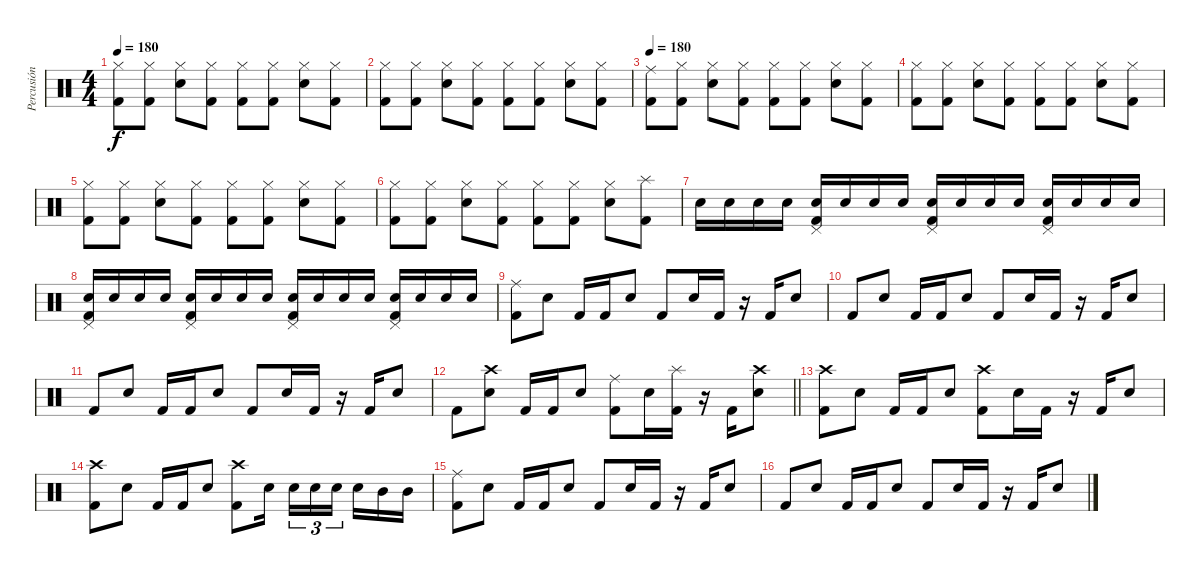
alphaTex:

\track ("Percusión" "Percusión") {instrument percussion}
\staff {score}
\articulation defaults
\ts (4 4)
\tempo 180
\clef neutral
\ks c
("Kick (hit) 2" "Hi-Hat (closed)").8{dy f} ("Kick (hit) 2" "Hi-Hat (closed)").8 ("Snare (hit) 2" "Hi-Hat (closed)").8 ("Kick (hit) 2" "Hi-Hat (closed)").8 ("Kick (hit) 2" "Hi-Hat (closed)").8 ("Kick (hit) 2" "Hi-Hat (closed)").8 ("Snare (hit) 2" "Hi-Hat (closed)").8 ("Kick (hit) 2" "Hi-Hat (closed)").8 |
("Kick (hit) 2" "Hi-Hat (closed)").8 ("Kick (hit) 2" "Hi-Hat (closed)").8 ("Snare (hit) 2" "Hi-Hat (closed)").8 ("Kick (hit) 2" "Hi-Hat (closed)").8 ("Kick (hit) 2" "Hi-Hat (closed)").8 ("Kick (hit) 2" "Hi-Hat (closed)").8 ("Snare (hit) 2" "Hi-Hat (closed)").8 ("Kick (hit) 2" "Hi-Hat (closed)").8 |
\tempo 180
("Kick (hit) 2" "Ride (middle)").8 ("Kick (hit) 2" "Hi-Hat (closed)").8 ("Snare (hit) 2" "Hi-Hat (closed)").8 ("Kick (hit) 2" "Hi-Hat (closed)").8 ("Kick (hit) 2" "Hi-Hat (closed)").8 ("Kick (hit) 2" "Hi-Hat (closed)").8 ("Snare (hit) 2" "Hi-Hat (closed)").8 ("Kick (hit) 2" "Hi-Hat (closed)").8 |
("Kick (hit) 2" "Hi-Hat (closed)").8 ("Kick (hit) 2" "Hi-Hat (closed)").8 ("Snare (hit) 2" "Hi-Hat (closed)").8 ("Kick (hit) 2" "Hi-Hat (closed)").8 ("Kick (hit) 2" "Hi-Hat (closed)").8 ("Kick (hit) 2" "Hi-Hat (closed)").8 ("Snare (hit) 2" "Hi-Hat (closed)").8 ("Kick (hit) 2" "Hi-Hat (closed)").8 |
("Kick (hit) 2" "Hi-Hat (closed)").8 ("Kick (hit) 2" "Hi-Hat (closed)").8 ("Snare (hit) 2" "Hi-Hat (closed)").8 ("Kick (hit) 2" "Hi-Hat (closed)").8 ("Kick (hit) 2" "Hi-Hat (closed)").8 ("Kick (hit) 2" "Hi-Hat (closed)").8 ("Snare (hit) 2" "Hi-Hat (closed)").8 ("Kick (hit) 2" "Hi-Hat (closed)").8 |
("Kick (hit) 2" "Hi-Hat (closed)").8 ("Kick (hit) 2" "Hi-Hat (closed)").8 ("Snare (hit) 2" "Hi-Hat (closed)").8 ("Kick (hit) 2" "Hi-Hat (closed)").8 ("Kick (hit) 2" "Hi-Hat (closed)").8 ("Kick (hit) 2" "Hi-Hat (closed)").8 ("Snare (hit) 2" "Hi-Hat (closed)").8 ("Kick (hit) 2" "Splash (hit)").8 |
"Snare (hit) 2".16 "Snare (hit) 2".16 "Snare (hit) 2".16 "Snare (hit) 2".16 ("Snare (hit) 2" "Kick (hit) 2" "Pedal Hi-Hat (hit)").16 "Snare (hit) 2".16 "Snare (hit) 2".16 "Snare (hit) 2".16 ("Snare (hit) 2" "Kick (hit) 2" "Pedal Hi-Hat (hit)").16 "Snare (hit) 2".16 "Snare (hit) 2".16 "Snare (hit) 2".16 ("Snare (hit) 2" "Kick (hit) 2" "Pedal Hi-Hat (hit)").16 "Snare (hit) 2".16 "Snare (hit) 2".16 "Snare (hit) 2".16 |
("Snare (hit) 2" "Kick (hit) 2" "Pedal Hi-Hat (hit)").16 "Snare (hit) 2".16 "Snare (hit) 2".16 "Snare (hit) 2".16 ("Snare (hit) 2" "Kick (hit) 2" "Pedal Hi-Hat (hit)").16 "Snare (hit) 2".16 "Snare (hit) 2".16 "Snare (hit) 2".16 ("Snare (hit) 2" "Kick (hit) 2" "Pedal Hi-Hat (hit)").16 "Snare (hit) 2".16 "Snare (hit) 2".16 "Snare (hit) 2".16 ("Snare (hit) 2" "Kick (hit) 2" "Pedal Hi-Hat (hit)").16 "Snare (hit) 2".16 "Snare (hit) 2".16 "Snare (hit) 2".16 |
("Ride (middle)" "Kick (hit) 2").8 "Snare (hit) 2".8 "Kick (hit) 2".16 "Kick (hit) 2".16 "Snare (hit) 2".8 "Kick (hit) 2".8 "Snare (hit) 2".16 "Kick (hit) 2".16 r.16 "Kick (hit) 2".16 "Snare (hit) 2".8 |
"Kick (hit) 2".8 "Snare (hit) 2".8 "Kick (hit) 2".16 "Kick (hit) 2".16 "Snare (hit) 2".8 "Kick (hit) 2".8 "Snare (hit) 2".16 "Kick (hit) 2".16 r.16 "Kick (hit) 2".16 "Snare (hit) 2".8 |
"Kick (hit) 2".8 "Snare (hit) 2".8 "Kick (hit) 2".16 "Kick (hit) 2".16 "Snare (hit) 2".8 "Kick (hit) 2".8 "Snare (hit) 2".16 "Kick (hit) 2".16 r.16 "Kick (hit) 2".16 "Snare (hit) 2".8 |
\barLineRight lightlight "Kick (hit) 2".8
("Snare (hit) 2" "Crash high (hit)").8 "Kick (hit) 2".16 "Kick (hit) 2".16 "Snare (hit) 2".8 ("Ride (middle)" "Kick (hit) 2").8 "Snare (hit) 2".16 ("Splash (hit)" "Kick (hit) 2").16 r.16 "Kick (hit) 2".16 ("Snare (hit) 2" "Crash high (hit)").8 |
("Crash high (hit)" "Kick (hit) 2").8 "Snare (hit) 2".8 "Kick (hit) 2".16 "Kick (hit) 2".16 "Snare (hit) 2".8 ("Crash high (hit)" "Kick (hit) 2").8 "Snare (hit) 2".16 "Kick (hit) 2".16 r.16 "Kick (hit) 2".16 "Snare (hit) 2".8 |
("Crash high (hit)" "Kick (hit) 2").8 "Snare (hit) 2".8 "Kick (hit) 2".16 "Kick (hit) 2".16 "Snare (hit) 2".8 ("Crash high (hit)" "Kick (hit) 2").8 "Snare (hit) 2".16{beam splitsecondary} "Snare (hit) 2".16{tu (3 2)} "Snare (hit) 2".16{tu (3 2)} "Snare (hit) 2".16{tu (3 2) beam splitsecondary} "Snare (hit) 2".16 "Mid Tom (hit)".16 "Mid Tom (hit)".16 |
("Ride (middle)" "Kick (hit) 2").8 "Snare (hit) 2".8 "Kick (hit) 2".16 "Kick (hit) 2".16 "Snare (hit) 2".8 "Kick (hit) 2".8 "Snare (hit) 2".16 "Kick (hit) 2".16 r.16 "Kick (hit) 2".16 "Snare (hit) 2".8 |
"Kick (hit) 2".8 "Snare (hit) 2".8 "Kick (hit) 2".16 "Kick (hit) 2".16 "Snare (hit) 2".8 "Kick (hit) 2".8 "Snare (hit) 2".16 "Kick (hit) 2".16 r.16 "Kick (hit) 2".16 "Snare (hit) 2".8
